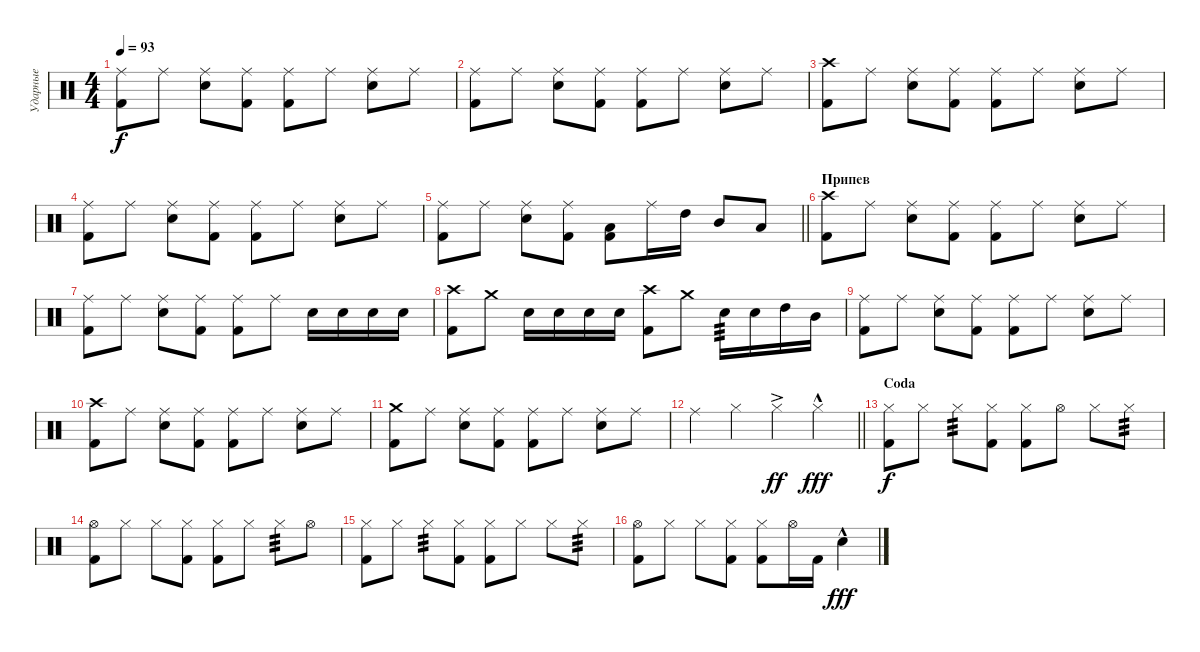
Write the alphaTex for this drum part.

\track ("Ударные" "Ударные") {instrument percussion}
\staff
\articulation defaults
\ts (4 4)
\tempo 93
\clef neutral
\ks c
("Ride (middle)" "Kick (hit) 2").8{dy f} "Ride (middle)".8 ("Ride (middle)" "Electric Snare (hit)").8 ("Ride (middle)" "Kick (hit) 2").8 ("Ride (middle)" "Kick (hit) 2").8 "Ride (middle)".8 ("Ride (middle)" "Electric Snare (hit)").8 "Ride (middle)".8 |
("Ride (middle)" "Kick (hit) 2").8 "Ride (middle)".8 ("Ride (middle)" "Electric Snare (hit)").8 ("Ride (middle)" "Kick (hit) 2").8 ("Ride (middle)" "Kick (hit) 2").8 "Ride (middle)".8 ("Ride (middle)" "Electric Snare (hit)").8 "Ride (middle)".8 |
("Crash high (hit)" "Kick (hit) 2").8 "Ride (middle)".8 ("Ride (middle)" "Electric Snare (hit)").8 ("Ride (middle)" "Kick (hit) 2").8 ("Ride (middle)" "Kick (hit) 2").8 "Ride (middle)".8 ("Ride (middle)" "Electric Snare (hit)").8 "Ride (middle)".8 |
("Ride (middle)" "Kick (hit) 2").8 "Ride (middle)".8 ("Ride (middle)" "Electric Snare (hit)").8 ("Ride (middle)" "Kick (hit) 2").8 ("Ride (middle)" "Kick (hit) 2").8 "Ride (middle)".8 ("Ride (middle)" "Electric Snare (hit)").8 "Ride (middle)".8 |
\barLineRight lightlight
("Ride (middle)" "Kick (hit) 2").8 "Ride (middle)".8 ("Ride (middle)" "Electric Snare (hit)").8 ("Ride (middle)" "Kick (hit) 2").8 ("Low Tom (hit)" "Kick (hit) 2").8 "Ride (middle)".16 "High Tom (hit)".16 "Mid Tom (hit)".8 "Low Tom (hit)".8 |
\section ("" "Припев")
("Crash high (hit)" "Kick (hit) 2").8 "Ride (middle)".8 ("Ride (middle)" "Electric Snare (hit)").8 ("Ride (middle)" "Kick (hit) 2").8 ("Ride (middle)" "Kick (hit) 2").8 "Ride (middle)".8 ("Ride (middle)" "Electric Snare (hit)").8 "Ride (middle)".8 |
("Ride (middle)" "Kick (hit) 2").8 "Ride (middle)".8 ("Ride (middle)" "Electric Snare (hit)").8 ("Ride (middle)" "Kick (hit) 2").8 ("Ride (middle)" "Kick (hit) 2").8 "Ride (middle)".8 "Electric Snare (hit)".16 "Electric Snare (hit)".16 "Electric Snare (hit)".16 "Electric Snare (hit)".16 |
("Crash high (hit)" "Kick (hit) 2").8 "Crash medium (hit)".8 "Electric Snare (hit)".16 "Electric Snare (hit)".16 "Electric Snare (hit)".16 "Electric Snare (hit)".16 ("Crash high (hit)" "Kick (hit) 2").8 "Crash medium (hit)".8 "Electric Snare (hit)".16{tp 3} "Electric Snare (hit)".16 "High Tom (hit)".16 "Mid Tom (hit)".16 |
("Ride (middle)" "Kick (hit) 2").8 "Ride (middle)".8 ("Ride (middle)" "Electric Snare (hit)").8 ("Ride (middle)" "Kick (hit) 2").8 ("Ride (middle)" "Kick (hit) 2").8 "Ride (middle)".8 ("Ride (middle)" "Electric Snare (hit)").8 "Ride (middle)".8 |
("Crash high (hit)" "Kick (hit) 2").8 "Ride (middle)".8 ("Ride (middle)" "Electric Snare (hit)").8 ("Ride (middle)" "Kick (hit) 2").8 ("Ride (middle)" "Kick (hit) 2").8 "Ride (middle)".8 ("Ride (middle)" "Electric Snare (hit)").8 "Ride (middle)".8 |
("Crash medium (hit)" "Kick (hit) 2").8 "Ride (middle)".8 ("Ride (middle)" "Electric Snare (hit)").8 ("Ride (middle)" "Kick (hit) 2").8 ("Ride (middle)" "Kick (hit) 2").8 "Ride (middle)".8 ("Ride (middle)" "Electric Snare (hit)").8 "Ride (middle)".8 |
\barLineRight lightlight "Ride (middle)".4 "Hi-Hat (closed)".4 "Hi-Hat (closed)"{ac}.4{dy ff} "Hi-Hat (closed)"{hac}.4{dy fff}
|
\section ("" "Coda")
("Hi-Hat (closed)" "Kick (hit) 2").8{dy f} "Hi-Hat (closed)".8 "Hi-Hat (closed)".8{tp 3} ("Hi-Hat (closed)" "Kick (hit) 2").8 ("Hi-Hat (closed)" "Kick (hit) 2").8 "Hi-Hat (open)".8 "Hi-Hat (closed)".8 "Hi-Hat (closed)".8{tp 3} |
("Hi-Hat (open)" "Kick (hit) 2").8 "Hi-Hat (closed)".8 "Hi-Hat (closed)".8 ("Hi-Hat (closed)" "Kick (hit) 2").8 ("Hi-Hat (closed)" "Kick (hit) 2").8 "Hi-Hat (closed)".8 "Hi-Hat (closed)".8{tp 3} "Hi-Hat (open)".8 |
("Hi-Hat (closed)" "Kick (hit) 2").8 "Hi-Hat (closed)".8 "Hi-Hat (closed)".8{tp 3} ("Hi-Hat (closed)" "Kick (hit) 2").8 ("Hi-Hat (closed)" "Kick (hit) 2").8 "Hi-Hat (closed)".8 "Hi-Hat (closed)".8 "Hi-Hat (closed)".8{tp 3} |
("Hi-Hat (open)" "Kick (hit) 2").8 "Hi-Hat (closed)".8 "Hi-Hat (closed)".8 ("Hi-Hat (closed)" "Kick (hit) 2").8 ("Hi-Hat (closed)" "Kick (hit) 2").8 "Hi-Hat (open)".16 "Kick (hit) 2".16 "Electric Snare (hit)"{hac}.4{dy fff}
